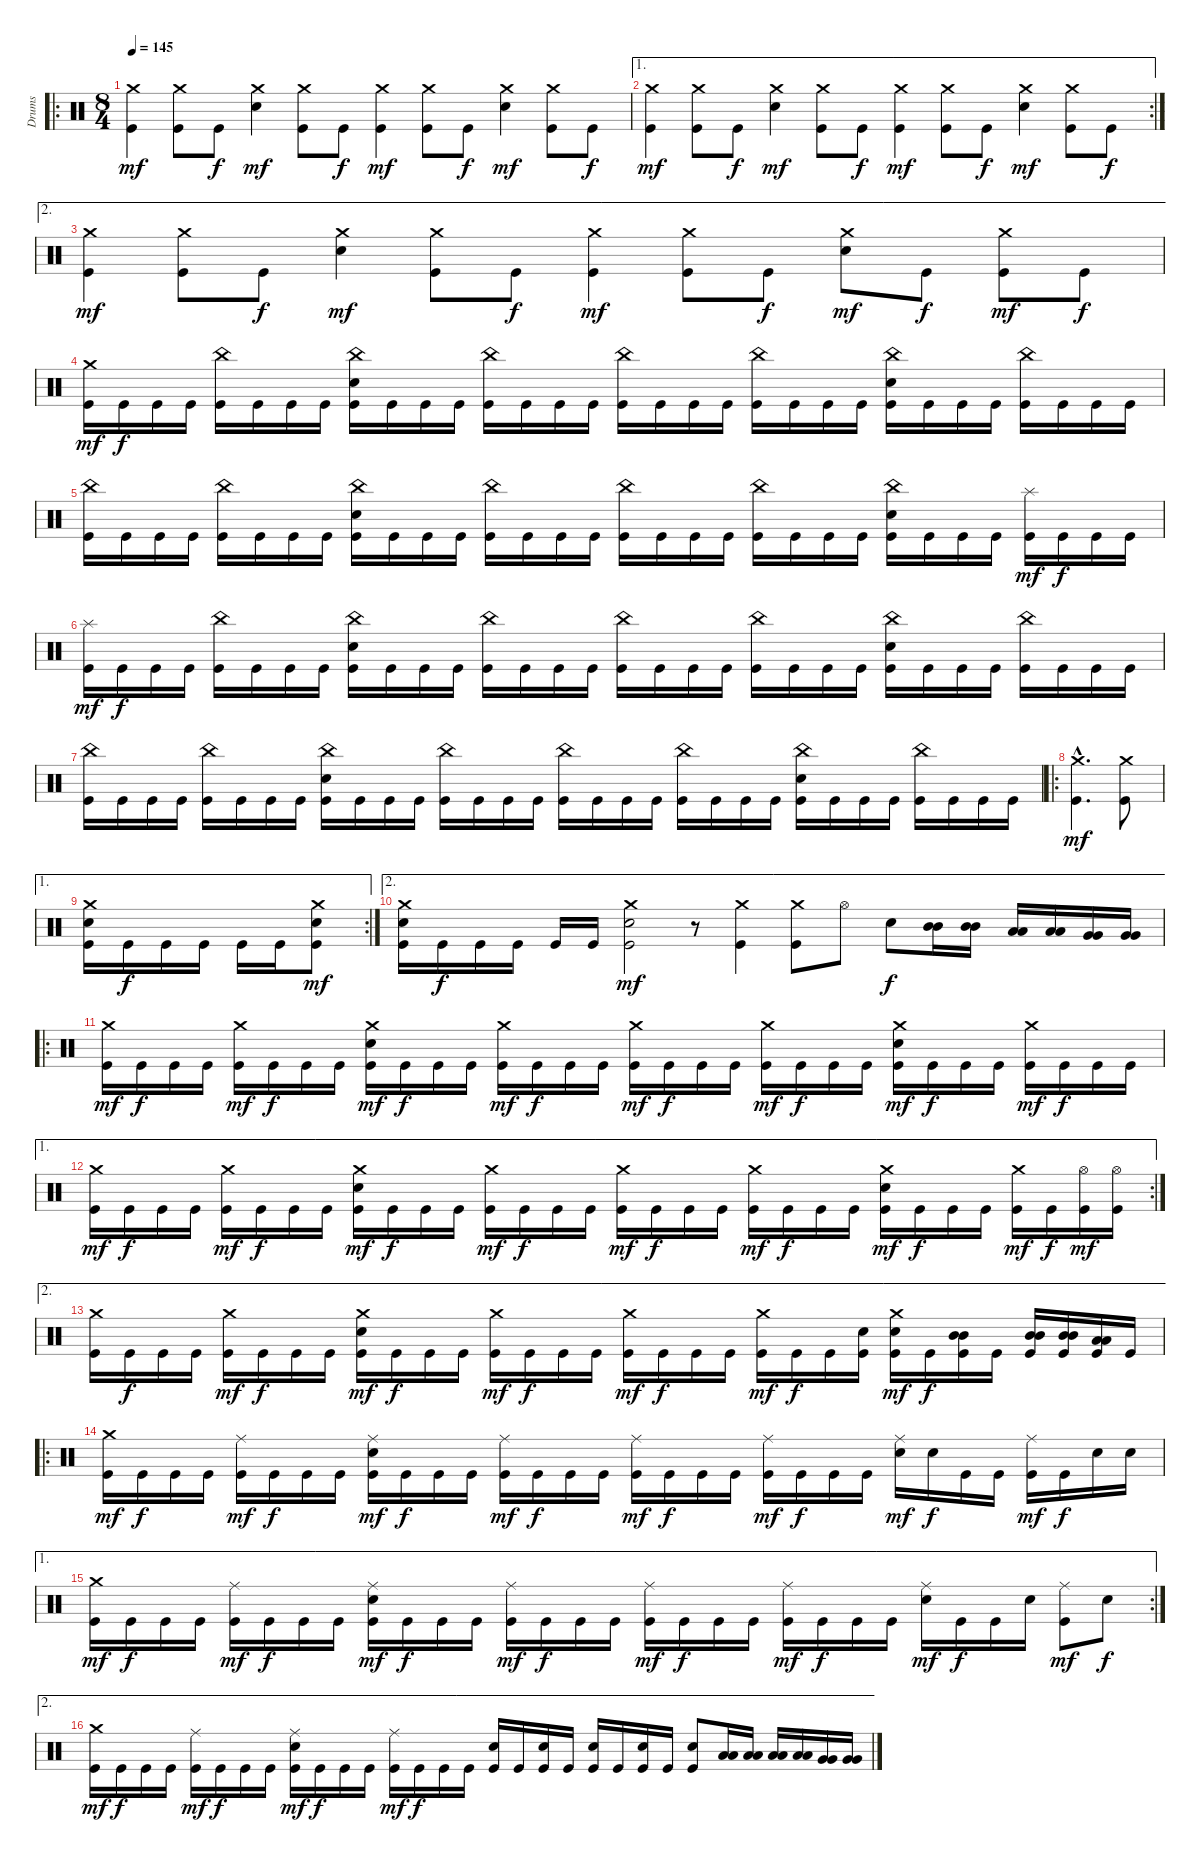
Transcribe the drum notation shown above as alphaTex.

\track ("Drums" "Drums") {instrument percussion}
\staff {score}
\articulation defaults
\ro
\ts (8 4)
\tempo 145
\clef neutral
\ks c
("Crash medium (hit)" "Kick (hit)").4{dy mf} ("Crash medium (hit)" "Kick (hit)").8 "Kick (hit)".8{dy f} ("Crash medium (hit)" "Electric Snare (hit)").4{dy mf} ("Crash medium (hit)" "Kick (hit)").8 "Kick (hit)".8{dy f} ("Crash medium (hit)" "Kick (hit)").4{dy mf} ("Crash medium (hit)" "Kick (hit)").8 "Kick (hit)".8{dy f} ("Crash medium (hit)" "Electric Snare (hit)").4{dy mf} ("Crash medium (hit)" "Kick (hit)").8 "Kick (hit)".8{dy f} |
\ae 1
\rc 2
("Crash medium (hit)" "Kick (hit)").4{dy mf} ("Crash medium (hit)" "Kick (hit)").8 "Kick (hit)".8{dy f} ("Crash medium (hit)" "Electric Snare (hit)").4{dy mf} ("Crash medium (hit)" "Kick (hit)").8 "Kick (hit)".8{dy f} ("Crash medium (hit)" "Kick (hit)").4{dy mf} ("Crash medium (hit)" "Kick (hit)").8 "Kick (hit)".8{dy f} ("Crash medium (hit)" "Electric Snare (hit)").4{dy mf} ("Crash medium (hit)" "Kick (hit)").8 "Kick (hit)".8{dy f} |
\ae 2
("Crash medium (hit)" "Kick (hit)").4{dy mf} ("Crash medium (hit)" "Kick (hit)").8 "Kick (hit)".8{dy f} ("Crash medium (hit)" "Electric Snare (hit)").4{dy mf} ("Crash medium (hit)" "Kick (hit)").8 "Kick (hit)".8{dy f} ("Crash medium (hit)" "Kick (hit)").4{dy mf} ("Crash medium (hit)" "Kick (hit)").8 "Kick (hit)".8{dy f} ("Crash medium (hit)" "Electric Snare (hit)").8{dy mf} "Kick (hit)".8{dy f} ("Crash medium (hit)" "Kick (hit)").8{dy mf} "Kick (hit)".8{dy f} |
("Crash medium (hit)" "Kick (hit)").16{dy mf} "Kick (hit)".16{dy f} "Kick (hit)".16 "Kick (hit)".16 ("China (hit)" "Kick (hit)").16 "Kick (hit)".16 "Kick (hit)".16 "Kick (hit)".16 ("China (hit)" "Electric Snare (hit)" "Kick (hit)").16 "Kick (hit)".16 "Kick (hit)".16 "Kick (hit)".16 ("China (hit)" "Kick (hit)").16 "Kick (hit)".16 "Kick (hit)".16 "Kick (hit)".16 ("China (hit)" "Kick (hit)").16 "Kick (hit)".16 "Kick (hit)".16 "Kick (hit)".16 ("China (hit)" "Kick (hit)").16 "Kick (hit)".16 "Kick (hit)".16 "Kick (hit)".16 ("China (hit)" "Electric Snare (hit)" "Kick (hit)").16 "Kick (hit)".16 "Kick (hit)".16 "Kick (hit)".16 ("China (hit)" "Kick (hit)").16 "Kick (hit)".16 "Kick (hit)".16 "Kick (hit)".16 |
("China (hit)" "Kick (hit)").16 "Kick (hit)".16 "Kick (hit)".16 "Kick (hit)".16 ("China (hit)" "Kick (hit)").16 "Kick (hit)".16 "Kick (hit)".16 "Kick (hit)".16 ("China (hit)" "Electric Snare (hit)" "Kick (hit)").16 "Kick (hit)".16 "Kick (hit)".16 "Kick (hit)".16 ("China (hit)" "Kick (hit)").16 "Kick (hit)".16 "Kick (hit)".16 "Kick (hit)".16 ("China (hit)" "Kick (hit)").16 "Kick (hit)".16 "Kick (hit)".16 "Kick (hit)".16 ("China (hit)" "Kick (hit)").16 "Kick (hit)".16 "Kick (hit)".16 "Kick (hit)".16 ("China (hit)" "Electric Snare (hit)" "Kick (hit)").16 "Kick (hit)".16 "Kick (hit)".16 "Kick (hit)".16 ("Splash (hit)" "Kick (hit)").16{dy mf} "Kick (hit)".16{dy f} "Kick (hit)".16 "Kick (hit)".16 |
("Splash (hit)" "Kick (hit)").16{dy mf} "Kick (hit)".16{dy f} "Kick (hit)".16 "Kick (hit)".16 ("China (hit)" "Kick (hit)").16 "Kick (hit)".16 "Kick (hit)".16 "Kick (hit)".16 ("China (hit)" "Electric Snare (hit)" "Kick (hit)").16 "Kick (hit)".16 "Kick (hit)".16 "Kick (hit)".16 ("China (hit)" "Kick (hit)").16 "Kick (hit)".16 "Kick (hit)".16 "Kick (hit)".16 ("China (hit)" "Kick (hit)").16 "Kick (hit)".16 "Kick (hit)".16 "Kick (hit)".16 ("China (hit)" "Kick (hit)").16 "Kick (hit)".16 "Kick (hit)".16 "Kick (hit)".16 ("China (hit)" "Electric Snare (hit)" "Kick (hit)").16 "Kick (hit)".16 "Kick (hit)".16 "Kick (hit)".16 ("China (hit)" "Kick (hit)").16 "Kick (hit)".16 "Kick (hit)".16 "Kick (hit)".16 |
("China (hit)" "Kick (hit)").16 "Kick (hit)".16 "Kick (hit)".16 "Kick (hit)".16 ("China (hit)" "Kick (hit)").16 "Kick (hit)".16 "Kick (hit)".16 "Kick (hit)".16 ("China (hit)" "Electric Snare (hit)" "Kick (hit)").16 "Kick (hit)".16 "Kick (hit)".16 "Kick (hit)".16 ("China (hit)" "Kick (hit)").16 "Kick (hit)".16 "Kick (hit)".16 "Kick (hit)".16 ("China (hit)" "Kick (hit)").16 "Kick (hit)".16 "Kick (hit)".16 "Kick (hit)".16 ("China (hit)" "Kick (hit)").16 "Kick (hit)".16 "Kick (hit)".16 "Kick (hit)".16 ("China (hit)" "Electric Snare (hit)" "Kick (hit)").16 "Kick (hit)".16 "Kick (hit)".16 "Kick (hit)".16 ("China (hit)" "Kick (hit)").16 "Kick (hit)".16 "Kick (hit)".16 "Kick (hit)".16 |
\ro
("Crash medium (hit)"{hac} "Kick (hit)"{hac}).4{d dy mf} ("Crash medium (hit)" "Kick (hit)").8 |
\ae 1
\rc 2
("Crash medium (hit)" "Electric Snare (hit)" "Kick (hit)").16 "Kick (hit)".16{dy f} "Kick (hit)".16 "Kick (hit)".16 "Kick (hit)".16 "Kick (hit)".16 ("Crash medium (hit)" "Electric Snare (hit)" "Kick (hit)").8{dy mf} |
\ae 2
("Crash medium (hit)" "Electric Snare (hit)" "Kick (hit)").16 "Kick (hit)".16{dy f} "Kick (hit)".16 "Kick (hit)".16 "Kick (hit)".16 "Kick (hit)".16 ("Crash medium (hit)" "Electric Snare (hit)" "Kick (hit)").2{dy mf} r.8 ("Crash medium (hit)" "Kick (hit)").4 ("Crash medium (hit)" "Kick (hit)").8 "Hi-Hat (open)".8 "Electric Snare (hit)".8{dy f} ("Mid Tom (hit)" "Mid Tom (hit)").16 ("Mid Tom (hit)" "Mid Tom (hit)").16 ("Low Tom (hit)" "Low Tom (hit)").16 ("Low Tom (hit)" "Low Tom (hit)").16 ("Very Low Tom (hit)" "Very Low Tom (hit)").16 ("Very Low Tom (hit)" "Very Low Tom (hit)").16 |
\ro
("Crash medium (hit)" "Kick (hit)").16{dy mf} "Kick (hit)".16{dy f} "Kick (hit)".16 "Kick (hit)".16 ("Crash medium (hit)" "Kick (hit)").16{dy mf} "Kick (hit)".16{dy f} "Kick (hit)".16 "Kick (hit)".16 ("Crash medium (hit)" "Electric Snare (hit)" "Kick (hit)").16{dy mf} "Kick (hit)".16{dy f} "Kick (hit)".16 "Kick (hit)".16 ("Crash medium (hit)" "Kick (hit)").16{dy mf} "Kick (hit)".16{dy f} "Kick (hit)".16 "Kick (hit)".16 ("Crash medium (hit)" "Kick (hit)").16{dy mf} "Kick (hit)".16{dy f} "Kick (hit)".16 "Kick (hit)".16 ("Crash medium (hit)" "Kick (hit)").16{dy mf} "Kick (hit)".16{dy f} "Kick (hit)".16 "Kick (hit)".16 ("Crash medium (hit)" "Electric Snare (hit)" "Kick (hit)").16{dy mf} "Kick (hit)".16{dy f} "Kick (hit)".16 "Kick (hit)".16 ("Crash medium (hit)" "Kick (hit)").16{dy mf} "Kick (hit)".16{dy f} "Kick (hit)".16 "Kick (hit)".16 |
\ae 1
\rc 2
("Crash medium (hit)" "Kick (hit)").16{dy mf} "Kick (hit)".16{dy f} "Kick (hit)".16 "Kick (hit)".16 ("Crash medium (hit)" "Kick (hit)").16{dy mf} "Kick (hit)".16{dy f} "Kick (hit)".16 "Kick (hit)".16 ("Crash medium (hit)" "Electric Snare (hit)" "Kick (hit)").16{dy mf} "Kick (hit)".16{dy f} "Kick (hit)".16 "Kick (hit)".16 ("Crash medium (hit)" "Kick (hit)").16{dy mf} "Kick (hit)".16{dy f} "Kick (hit)".16 "Kick (hit)".16 ("Crash medium (hit)" "Kick (hit)").16{dy mf} "Kick (hit)".16{dy f} "Kick (hit)".16 "Kick (hit)".16 ("Crash medium (hit)" "Kick (hit)").16{dy mf} "Kick (hit)".16{dy f} "Kick (hit)".16 "Kick (hit)".16 ("Crash medium (hit)" "Electric Snare (hit)" "Kick (hit)").16{dy mf} "Kick (hit)".16{dy f} "Kick (hit)".16 "Kick (hit)".16 ("Crash medium (hit)" "Kick (hit)").16{dy mf} "Kick (hit)".16{dy f} ("Hi-Hat (open)" "Kick (hit)").16{dy mf} ("Hi-Hat (open)" "Kick (hit)").16 |
\ae 2
("Crash medium (hit)" "Kick (hit)").16 "Kick (hit)".16{dy f} "Kick (hit)".16 "Kick (hit)".16 ("Crash medium (hit)" "Kick (hit)").16{dy mf} "Kick (hit)".16{dy f} "Kick (hit)".16 "Kick (hit)".16 ("Crash medium (hit)" "Electric Snare (hit)" "Kick (hit)").16{dy mf} "Kick (hit)".16{dy f} "Kick (hit)".16 "Kick (hit)".16 ("Crash medium (hit)" "Kick (hit)").16{dy mf} "Kick (hit)".16{dy f} "Kick (hit)".16 "Kick (hit)".16 ("Crash medium (hit)" "Kick (hit)").16{dy mf} "Kick (hit)".16{dy f} "Kick (hit)".16 "Kick (hit)".16 ("Crash medium (hit)" "Kick (hit)").16{dy mf} "Kick (hit)".16{dy f} "Kick (hit)".16 ("Electric Snare (hit)" "Kick (hit)").16 ("Crash medium (hit)" "Electric Snare (hit)" "Kick (hit)").16{dy mf} "Kick (hit)".16{dy f} ("Mid Tom (hit)" "Mid Tom (hit)" "Kick (hit)").16 "Kick (hit)".16 ("Mid Tom (hit)" "Mid Tom (hit)" "Kick (hit)").16 ("Mid Tom (hit)" "Mid Tom (hit)" "Kick (hit)").16 ("Low Tom (hit)" "Low Tom (hit)" "Kick (hit)").16 "Kick (hit)".16 |
\ro
("Crash medium (hit)" "Kick (hit)").16{dy mf} "Kick (hit)".16{dy f} "Kick (hit)".16 "Kick (hit)".16 ("Ride (middle)" "Kick (hit)").16{dy mf} "Kick (hit)".16{dy f} "Kick (hit)".16 "Kick (hit)".16 ("Ride (middle)" "Electric Snare (hit)" "Kick (hit)").16{dy mf} "Kick (hit)".16{dy f} "Kick (hit)".16 "Kick (hit)".16 ("Ride (middle)" "Kick (hit)").16{dy mf} "Kick (hit)".16{dy f} "Kick (hit)".16 "Kick (hit)".16 ("Ride (middle)" "Kick (hit)").16{dy mf} "Kick (hit)".16{dy f} "Kick (hit)".16 "Kick (hit)".16 ("Ride (middle)" "Kick (hit)").16{dy mf} "Kick (hit)".16{dy f} "Kick (hit)".16 "Kick (hit)".16 ("Ride (middle)" "Electric Snare (hit)").16{dy mf} "Electric Snare (hit)".16{dy f} "Kick (hit)".16 "Kick (hit)".16 ("Ride (middle)" "Kick (hit)").16{dy mf} "Kick (hit)".16{dy f} "Electric Snare (hit)".16 "Electric Snare (hit)".16 |
\ae 1
\rc 2
("Crash medium (hit)" "Kick (hit)").16{dy mf} "Kick (hit)".16{dy f} "Kick (hit)".16 "Kick (hit)".16 ("Ride (middle)" "Kick (hit)").16{dy mf} "Kick (hit)".16{dy f} "Kick (hit)".16 "Kick (hit)".16 ("Ride (middle)" "Electric Snare (hit)" "Kick (hit)").16{dy mf} "Kick (hit)".16{dy f} "Kick (hit)".16 "Kick (hit)".16 ("Ride (middle)" "Kick (hit)").16{dy mf} "Kick (hit)".16{dy f} "Kick (hit)".16 "Kick (hit)".16 ("Ride (middle)" "Kick (hit)").16{dy mf} "Kick (hit)".16{dy f} "Kick (hit)".16 "Kick (hit)".16 ("Ride (middle)" "Kick (hit)").16{dy mf} "Kick (hit)".16{dy f} "Kick (hit)".16 "Kick (hit)".16 ("Ride (middle)" "Electric Snare (hit)").16{dy mf} "Kick (hit)".16{dy f} "Kick (hit)".16 "Electric Snare (hit)".16 ("Ride (middle)" "Kick (hit)").8{dy mf} "Electric Snare (hit)".8{dy f} |
\ae 2
("Crash medium (hit)" "Kick (hit)").16{dy mf} "Kick (hit)".16{dy f} "Kick (hit)".16 "Kick (hit)".16 ("Ride (middle)" "Kick (hit)").16{dy mf} "Kick (hit)".16{dy f} "Kick (hit)".16 "Kick (hit)".16 ("Ride (middle)" "Electric Snare (hit)" "Kick (hit)").16{dy mf} "Kick (hit)".16{dy f} "Kick (hit)".16 "Kick (hit)".16 ("Ride (middle)" "Kick (hit)").16{dy mf} "Kick (hit)".16{dy f} "Kick (hit)".16 "Kick (hit)".16 ("Electric Snare (hit)" "Kick (hit)").16 "Kick (hit)".16 ("Electric Snare (hit)" "Kick (hit)").16 "Kick (hit)".16 ("Electric Snare (hit)" "Kick (hit)").16 "Kick (hit)".16 ("Electric Snare (hit)" "Kick (hit)").16 "Kick (hit)".16 ("Electric Snare (hit)" "Kick (hit)").8 ("Low Tom (hit)" "Low Tom (hit)").16 ("Low Tom (hit)" "Low Tom (hit)").16 ("Low Tom (hit)" "Low Tom (hit)").16 ("Low Tom (hit)" "Low Tom (hit)").16 ("Very Low Tom (hit)" "Very Low Tom (hit)").16 ("Very Low Tom (hit)" "Very Low Tom (hit)").16
